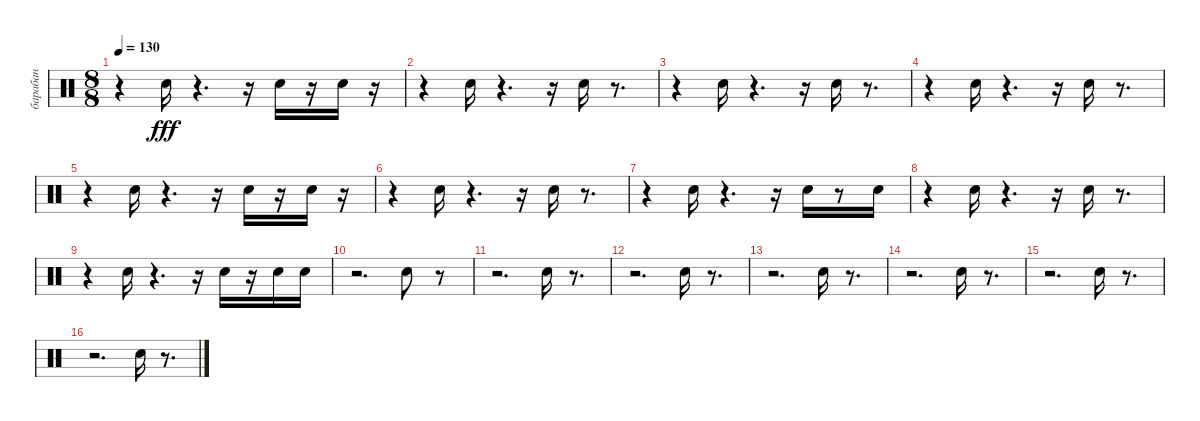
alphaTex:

\track ("барабан" "барабан") {instrument percussion}
\staff {score}
\articulation defaults
\ts (8 8)
\tempo 130
\clef neutral
\ks c
r.4{dy fff} "Snare (hit) 2".16 r.4{d} r.16 "Snare (hit) 2".16 r.16 "Snare (hit) 2".16 r.16 |
r.4 "Snare (hit) 2".16 r.4{d} r.16 "Snare (hit) 2".16 r.8{d} |
r.4 "Snare (hit) 2".16 r.4{d} r.16 "Snare (hit) 2".16 r.8{d} |
r.4 "Snare (hit) 2".16 r.4{d} r.16 "Snare (hit) 2".16 r.8{d} |
r.4 "Snare (hit) 2".16 r.4{d} r.16 "Snare (hit) 2".16 r.16 "Snare (hit) 2".16 r.16 |
r.4 "Snare (hit) 2".16 r.4{d} r.16 "Snare (hit) 2".16 r.8{d} |
r.4 "Snare (hit) 2".16 r.4{d} r.16 "Snare (hit) 2".16 r.8 "Snare (hit) 2".16 |
r.4 "Snare (hit) 2".16 r.4{d} r.16 "Snare (hit) 2".16 r.8{d} |
r.4 "Snare (hit) 2".16 r.4{d} r.16 "Snare (hit) 2".16 r.16 "Snare (hit) 2".16 "Snare (hit) 2".16 |
r.2{d} "Snare (hit) 2".8 r.8 |
r.2{d} "Snare (hit) 2".16 r.8{d} |
r.2{d} "Snare (hit) 2".16 r.8{d} |
r.2{d} "Snare (hit) 2".16 r.8{d} |
r.2{d} "Snare (hit) 2".16 r.8{d} |
r.2{d} "Snare (hit) 2".16 r.8{d} |
r.2{d} "Snare (hit) 2".16 r.8{d}
